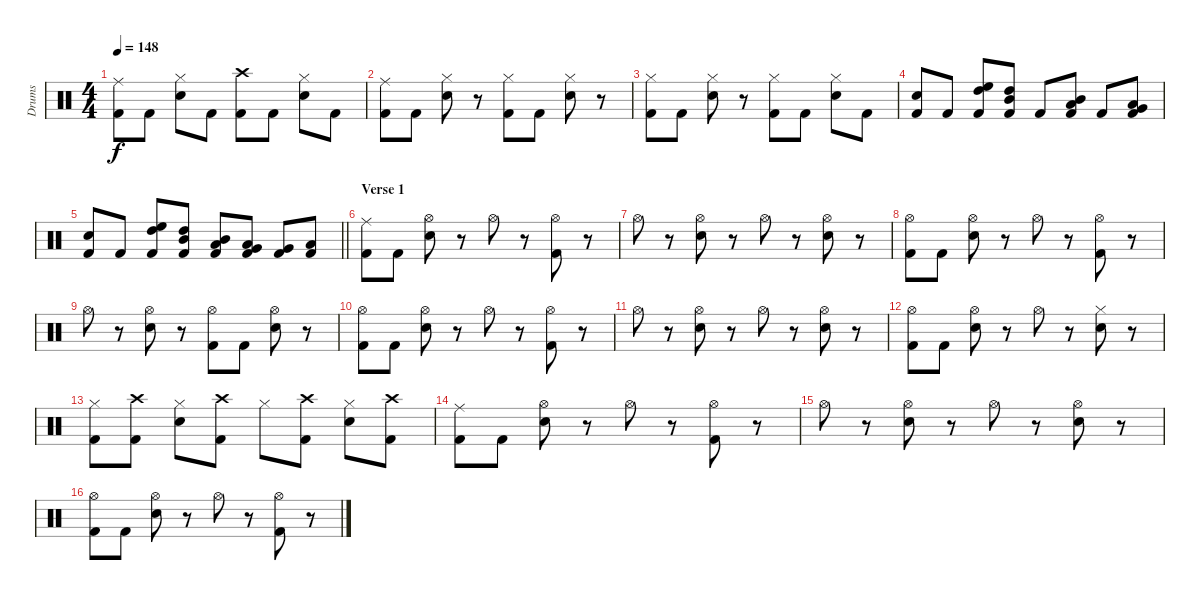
\track ("Drums" "Drums") {instrument percussion}
\staff {score}
\articulation defaults
\ts (4 4)
\tempo 148
\clef neutral
\ks c
("Ride (middle)" "Kick (hit) 2").8{dy f} "Kick (hit) 2".8 ("Hi-Hat (closed)" "Electric Snare (hit)").8 "Kick (hit) 2".8 ("Crash high (hit)" "Kick (hit) 2").8 "Kick (hit) 2".8 ("Hi-Hat (closed)" "Electric Snare (hit)").8 "Kick (hit) 2".8 |
("Ride (middle)" "Kick (hit) 2").8 "Kick (hit) 2".8 ("Hi-Hat (closed)" "Electric Snare (hit)").8 r.8 ("Hi-Hat (closed)" "Kick (hit) 2").8 "Kick (hit) 2".8 ("Hi-Hat (closed)" "Electric Snare (hit)").8 r.8 |
("Hi-Hat (closed)" "Kick (hit) 2").8 "Kick (hit) 2".8 ("Hi-Hat (closed)" "Electric Snare (hit)").8 r.8 ("Hi-Hat (closed)" "Kick (hit) 2").8 "Kick (hit) 2".8 ("Hi-Hat (closed)" "Electric Snare (hit)").8 "Kick (hit) 2".8 |
("Electric Snare (hit)" "Kick (hit) 2").8 "Kick (hit) 2".8 ("High Floor Tom (hit)" "High Tom (hit)" "Kick (hit) 2").8 ("Mid Tom (hit)" "High Tom (hit)" "Kick (hit) 2").8 "Kick (hit) 2".8 ("Mid Tom (hit)" "Low Tom (hit)" "Kick (hit) 2").8 "Kick (hit) 2".8 ("Very Low Tom (hit)" "Low Tom (hit)" "Kick (hit) 2").8 |
\barLineRight lightlight
("Electric Snare (hit)" "Kick (hit) 2").8 "Kick (hit) 2".8 ("High Floor Tom (hit)" "High Tom (hit)" "Kick (hit) 2").8 ("Mid Tom (hit)" "High Tom (hit)" "Kick (hit) 2").8 ("Mid Tom (hit)" "Low Tom (hit)" "Kick (hit) 2").8 ("Very Low Tom (hit)" "Low Tom (hit)" "Kick (hit) 2").8 ("Very Low Tom (hit)" "Kick (hit) 2").8 ("Low Floor Tom (hit)" "Kick (hit) 2").8 |
\section ("" "Verse 1")
("Ride (middle)" "Kick (hit) 2").8 "Kick (hit) 2".8 ("Hi-Hat (open)" "Electric Snare (hit)").8 r.8 "Hi-Hat (open)".8 r.8 ("Hi-Hat (open)" "Kick (hit) 2").8 r.8 |
"Hi-Hat (open)".8 r.8 ("Hi-Hat (open)" "Electric Snare (hit)").8 r.8 "Hi-Hat (open)".8 r.8 ("Hi-Hat (open)" "Electric Snare (hit)").8 r.8 |
("Hi-Hat (open)" "Kick (hit) 2").8 "Kick (hit) 2".8 ("Hi-Hat (open)" "Electric Snare (hit)").8 r.8 "Hi-Hat (open)".8 r.8 ("Hi-Hat (open)" "Kick (hit) 2").8 r.8 |
"Hi-Hat (open)".8 r.8 ("Hi-Hat (open)" "Electric Snare (hit)").8 r.8 ("Hi-Hat (open)" "Kick (hit) 2").8 "Kick (hit) 2".8 ("Hi-Hat (open)" "Electric Snare (hit)").8 r.8 |
("Hi-Hat (open)" "Kick (hit) 2").8 "Kick (hit) 2".8 ("Hi-Hat (open)" "Electric Snare (hit)").8 r.8 "Hi-Hat (open)".8 r.8 ("Hi-Hat (open)" "Kick (hit) 2").8 r.8 |
"Hi-Hat (open)".8 r.8 ("Hi-Hat (open)" "Electric Snare (hit)").8 r.8 "Hi-Hat (open)".8 r.8 ("Hi-Hat (open)" "Electric Snare (hit)").8 r.8 |
("Hi-Hat (open)" "Kick (hit) 2").8 "Kick (hit) 2".8 ("Hi-Hat (open)" "Electric Snare (hit)").8 r.8 "Hi-Hat (open)".8 r.8 ("Hi-Hat (closed)" "Electric Snare (hit)").8 r.8 |
("Hi-Hat (closed)" "Kick (hit) 2").8 ("Crash high (hit)" "Kick (hit) 2").8 ("Hi-Hat (closed)" "Electric Snare (hit)").8 ("Crash high (hit)" "Kick (hit) 2").8 "Hi-Hat (closed)".8 ("Crash high (hit)" "Kick (hit) 2").8 ("Hi-Hat (closed)" "Electric Snare (hit)").8 ("Crash high (hit)" "Kick (hit) 2").8 |
("Ride (middle)" "Kick (hit) 2").8 "Kick (hit) 2".8 ("Hi-Hat (open)" "Electric Snare (hit)").8 r.8 "Hi-Hat (open)".8 r.8 ("Hi-Hat (open)" "Kick (hit) 2").8 r.8 |
"Hi-Hat (open)".8 r.8 ("Hi-Hat (open)" "Electric Snare (hit)").8 r.8 "Hi-Hat (open)".8 r.8 ("Hi-Hat (open)" "Electric Snare (hit)").8 r.8 |
("Hi-Hat (open)" "Kick (hit) 2").8 "Kick (hit) 2".8 ("Hi-Hat (open)" "Electric Snare (hit)").8 r.8 "Hi-Hat (open)".8 r.8 ("Hi-Hat (open)" "Kick (hit) 2").8 r.8
